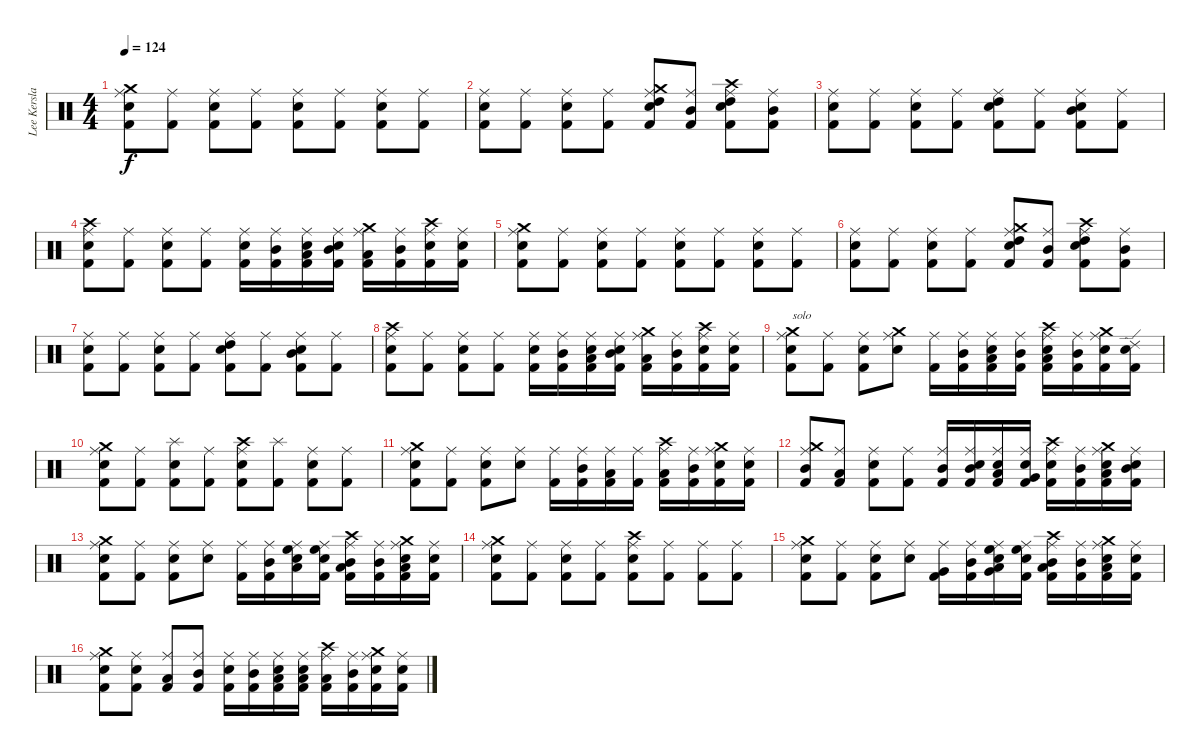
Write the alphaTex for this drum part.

\track ("Lee Kerslake" "Lee Kersla") {instrument percussion}
\staff {score}
\articulation defaults
\ts (4 4)
\tempo 124
\clef neutral
\ks c
("Kick (hit) 2" "Electric Snare (hit)" "Crash medium (hit)" "Ride (middle)").8{dy f} ("Kick (hit) 2" "Ride (middle)").8 ("Kick (hit) 2" "Electric Snare (hit)" "Ride (middle)").8 ("Kick (hit) 2" "Ride (middle)").8 ("Kick (hit) 2" "Electric Snare (hit)" "Ride (middle)").8 ("Kick (hit) 2" "Ride (middle)").8 ("Kick (hit) 2" "Electric Snare (hit)" "Ride (middle)").8 ("Kick (hit) 2" "Ride (middle)").8 |
("Kick (hit) 2" "Electric Snare (hit)" "Ride (middle)").8 ("Kick (hit) 2" "Ride (middle)").8 ("Kick (hit) 2" "Electric Snare (hit)" "Ride (middle)").8 ("Kick (hit) 2" "Ride (middle)").8 ("Kick (hit) 2" "Electric Snare (hit)" "High Tom (hit)" "Crash medium (hit)" "Ride (middle)").8 ("Kick (hit) 2" "Mid Tom (hit)" "Ride (middle)").8 ("Kick (hit) 2" "Electric Snare (hit)" "High Tom (hit)" "Crash high (hit)" "Ride (middle)").8 ("Kick (hit) 2" "Mid Tom (hit)" "Ride (middle)").8 |
("Kick (hit) 2" "Electric Snare (hit)" "Ride (middle)").8 ("Kick (hit) 2" "Ride (middle)").8 ("Kick (hit) 2" "Electric Snare (hit)" "Ride (middle)").8 ("Kick (hit) 2" "Ride (middle)").8 ("Kick (hit) 2" "Electric Snare (hit)" "High Tom (hit)" "Ride (middle)").8 ("Kick (hit) 2" "Ride (middle)").8 ("Kick (hit) 2" "Electric Snare (hit)" "Mid Tom (hit)" "Ride (middle)").8 ("Kick (hit) 2" "Ride (middle)").8 |
("Kick (hit) 2" "Electric Snare (hit)" "Crash high (hit)" "Ride (middle)").8 ("Kick (hit) 2" "Ride (middle)").8 ("Kick (hit) 2" "Electric Snare (hit)" "Ride (middle)").8 ("Kick (hit) 2" "Ride (middle)").8 ("Kick (hit) 2" "Electric Snare (hit)" "Ride (middle)").16 ("Kick (hit) 2" "Mid Tom (hit)" "Ride (middle)").16 ("Low Tom (hit)" "Kick (hit) 2" "Electric Snare (hit)" "Ride (middle)").16 ("Kick (hit) 2" "Mid Tom (hit)" "Electric Snare (hit)" "Ride (middle)").16 ("Kick (hit) 2" "Low Tom (hit)" "Crash medium (hit)" "Ride (middle)").16 ("Kick (hit) 2" "Mid Tom (hit)" "Ride (middle)").16 ("Kick (hit) 2" "Electric Snare (hit)" "Crash high (hit)" "Ride (middle)").16 ("Kick (hit) 2" "Electric Snare (hit)" "Ride (middle)").16 |
("Kick (hit) 2" "Electric Snare (hit)" "Crash medium (hit)" "Ride (middle)").8 ("Kick (hit) 2" "Ride (middle)").8 ("Kick (hit) 2" "Electric Snare (hit)" "Ride (middle)").8 ("Kick (hit) 2" "Ride (middle)").8 ("Kick (hit) 2" "Electric Snare (hit)" "Ride (middle)").8 ("Kick (hit) 2" "Ride (middle)").8 ("Kick (hit) 2" "Electric Snare (hit)" "Ride (middle)").8 ("Kick (hit) 2" "Ride (middle)").8 |
("Kick (hit) 2" "Electric Snare (hit)" "Ride (middle)").8 ("Kick (hit) 2" "Ride (middle)").8 ("Kick (hit) 2" "Electric Snare (hit)" "Ride (middle)").8 ("Kick (hit) 2" "Ride (middle)").8 ("Kick (hit) 2" "Electric Snare (hit)" "High Tom (hit)" "Crash medium (hit)" "Ride (middle)").8 ("Kick (hit) 2" "Mid Tom (hit)" "Ride (middle)").8 ("Kick (hit) 2" "Electric Snare (hit)" "High Tom (hit)" "Crash high (hit)" "Ride (middle)").8 ("Kick (hit) 2" "Mid Tom (hit)" "Ride (middle)").8 |
("Kick (hit) 2" "Electric Snare (hit)" "Ride (middle)").8 ("Kick (hit) 2" "Ride (middle)").8 ("Kick (hit) 2" "Electric Snare (hit)" "Ride (middle)").8 ("Kick (hit) 2" "Ride (middle)").8 ("Kick (hit) 2" "Electric Snare (hit)" "High Tom (hit)" "Ride (middle)").8 ("Kick (hit) 2" "Ride (middle)").8 ("Kick (hit) 2" "Electric Snare (hit)" "Mid Tom (hit)" "Ride (middle)").8 ("Kick (hit) 2" "Ride (middle)").8 |
("Kick (hit) 2" "Electric Snare (hit)" "Crash high (hit)" "Ride (middle)").8 ("Kick (hit) 2" "Ride (middle)").8 ("Kick (hit) 2" "Electric Snare (hit)" "Ride (middle)").8 ("Kick (hit) 2" "Ride (middle)").8 ("Kick (hit) 2" "Electric Snare (hit)" "Ride (middle)").16 ("Kick (hit) 2" "Mid Tom (hit)" "Ride (middle)").16 ("Low Tom (hit)" "Kick (hit) 2" "Electric Snare (hit)" "Ride (middle)").16 ("Kick (hit) 2" "Mid Tom (hit)" "Electric Snare (hit)" "Ride (middle)").16 ("Kick (hit) 2" "Low Tom (hit)" "Crash medium (hit)" "Ride (middle)").16 ("Kick (hit) 2" "Mid Tom (hit)" "Ride (middle)").16 ("Kick (hit) 2" "Electric Snare (hit)" "Crash high (hit)" "Ride (middle)").16 ("Kick (hit) 2" "Electric Snare (hit)" "Ride (middle)").16 |
("Kick (hit) 2" "Electric Snare (hit)" "Crash medium (hit)" "Ride (middle)").8{txt "solo"} ("Kick (hit) 2" "Ride (middle)").8 ("Kick (hit) 2" "Electric Snare (hit)" "Ride (middle)").8 ("Electric Snare (hit)" "Crash medium (hit)" "Ride (middle)").8 ("Kick (hit) 2" "Ride (middle)").16 ("Kick (hit) 2" "Mid Tom (hit)" "Ride (middle)").16 ("Low Tom (hit)" "Kick (hit) 2" "Electric Snare (hit)" "Ride (middle)").16 ("Kick (hit) 2" "Mid Tom (hit)" "Ride (middle)").16 ("Kick (hit) 2" "Low Tom (hit)" "Electric Snare (hit)" "Crash high (hit)" "Ride (middle)").16 ("Kick (hit) 2" "Mid Tom (hit)" "Ride (middle)").16 ("Kick (hit) 2" "Electric Snare (hit)" "Crash medium (hit)" "Ride (middle)").16 ("Kick (hit) 2" "Electric Snare (hit)" "Ride (edge) 2").16 |
("Kick (hit) 2" "Electric Snare (hit)" "Crash medium (hit)" "Ride (middle)").8 ("Kick (hit) 2" "Ride (middle)").8 ("Kick (hit) 2" "Electric Snare (hit)" "Splash (hit)").8 ("Kick (hit) 2" "Ride (middle)").8 ("Kick (hit) 2" "Electric Snare (hit)" "Crash high (hit)" "Ride (middle)").8 ("Kick (hit) 2" "Splash (hit)").8 ("Kick (hit) 2" "Electric Snare (hit)" "Ride (middle)").8 ("Kick (hit) 2" "Ride (middle)").8 |
("Kick (hit) 2" "Electric Snare (hit)" "Crash medium (hit)" "Ride (middle)").8 ("Kick (hit) 2" "Ride (middle)").8 ("Kick (hit) 2" "Electric Snare (hit)" "Ride (middle)").8 ("Electric Snare (hit)" "Ride (middle)").8 ("Kick (hit) 2" "Ride (middle)").16 ("Kick (hit) 2" "Mid Tom (hit)" "Ride (middle)").16 ("Low Tom (hit)" "Kick (hit) 2" "Ride (middle)").16 ("Kick (hit) 2" "Ride (middle)").16 ("Kick (hit) 2" "Low Tom (hit)" "Crash high (hit)" "Ride (middle)").16 ("Kick (hit) 2" "Mid Tom (hit)" "Ride (middle)").16 ("Kick (hit) 2" "Electric Snare (hit)" "Crash medium (hit)" "Ride (middle)").16 ("Kick (hit) 2" "Electric Snare (hit)" "Ride (middle)").16 |
("Kick (hit) 2" "Mid Tom (hit)" "Crash medium (hit)" "Ride (middle)").8 ("Kick (hit) 2" "Low Tom (hit)" "Ride (middle)").8 ("Kick (hit) 2" "Electric Snare (hit)" "Ride (middle)").8 ("Kick (hit) 2" "Ride (middle)").8 ("Kick (hit) 2" "Mid Tom (hit)" "Ride (middle)").16 ("Kick (hit) 2" "Electric Snare (hit)" "Mid Tom (hit)" "Ride (middle)").16 ("Kick (hit) 2" "Low Tom (hit)" "Electric Snare (hit)" "Ride (middle)").16 ("Kick (hit) 2" "Very Low Tom (hit)" "Electric Snare (hit)" "Ride (middle)").16 ("Kick (hit) 2" "Electric Snare (hit)" "Crash high (hit)" "Ride (middle)").16 ("Kick (hit) 2" "Mid Tom (hit)" "Ride (middle)").16 ("Kick (hit) 2" "Low Tom (hit)" "Electric Snare (hit)" "Crash medium (hit)" "Ride (middle)").16 ("Kick (hit) 2" "Mid Tom (hit)" "Electric Snare (hit)" "Ride (middle)").16 |
("Kick (hit) 2" "Electric Snare (hit)" "Crash medium (hit)" "Ride (middle)").8 ("Kick (hit) 2" "Ride (middle)").8 ("Kick (hit) 2" "Electric Snare (hit)" "Ride (middle)").8 ("Electric Snare (hit)" "Ride (middle)").8 ("Kick (hit) 2" "Ride (middle)").16 ("Kick (hit) 2" "Mid Tom (hit)" "Ride (middle)").16 ("Low Tom (hit)" "High Floor Tom (hit)" "Electric Snare (hit)" "Ride (middle)").16 ("Kick (hit) 2" "High Floor Tom (hit)" "Electric Snare (hit)" "Ride (middle)").16 ("Kick (hit) 2" "Low Tom (hit)" "Mid Tom (hit)" "Crash high (hit)" "Ride (middle)").16 ("Kick (hit) 2" "Mid Tom (hit)" "Ride (middle)").16 ("Kick (hit) 2" "Low Tom (hit)" "Electric Snare (hit)" "Crash medium (hit)" "Ride (middle)").16 ("Kick (hit) 2" "Electric Snare (hit)" "Ride (middle)").16 |
("Kick (hit) 2" "Electric Snare (hit)" "Crash medium (hit)" "Ride (middle)").8 ("Kick (hit) 2" "Ride (middle)").8 ("Kick (hit) 2" "Electric Snare (hit)" "Ride (middle)").8 ("Kick (hit) 2" "Ride (middle)").8 ("Kick (hit) 2" "Electric Snare (hit)" "Crash high (hit)" "Ride (middle)").8 ("Kick (hit) 2" "Ride (middle)").8 ("Kick (hit) 2" "Ride (middle)").8 ("Kick (hit) 2" "Ride (middle)").8 |
("Kick (hit) 2" "Electric Snare (hit)" "Crash medium (hit)" "Ride (middle)").8 ("Kick (hit) 2" "Ride (middle)").8 ("Kick (hit) 2" "Electric Snare (hit)" "Ride (middle)").8 ("Electric Snare (hit)" "Ride (middle)").8 ("Very Low Tom (hit)" "Kick (hit) 2" "Ride (middle)").16 ("Kick (hit) 2" "Mid Tom (hit)" "Ride (middle)").16 ("Low Tom (hit)" "High Floor Tom (hit)" "Very Low Tom (hit)" "Electric Snare (hit)" "Ride (middle)").16 ("Kick (hit) 2" "High Floor Tom (hit)" "Electric Snare (hit)" "Ride (middle)").16 ("Kick (hit) 2" "Low Tom (hit)" "Mid Tom (hit)" "Crash high (hit)" "Ride (middle)").16 ("Kick (hit) 2" "Mid Tom (hit)" "Ride (middle)").16 ("Kick (hit) 2" "Low Tom (hit)" "Electric Snare (hit)" "Crash medium (hit)" "Ride (middle)").16 ("Kick (hit) 2" "Electric Snare (hit)" "Ride (middle)").16 |
("Kick (hit) 2" "Electric Snare (hit)" "Crash medium (hit)" "Ride (middle)").8 ("Kick (hit) 2" "Electric Snare (hit)" "Ride (middle)").8 ("Kick (hit) 2" "Low Tom (hit)" "Ride (middle)").8 ("Kick (hit) 2" "Mid Tom (hit)" "Ride (middle)").8 ("Kick (hit) 2" "Electric Snare (hit)" "Ride (middle)").16 ("Kick (hit) 2" "Mid Tom (hit)" "Ride (middle)").16 ("Kick (hit) 2" "Low Tom (hit)" "Electric Snare (hit)" "Ride (middle)").16 ("Kick (hit) 2" "Low Floor Tom (hit)" "Electric Snare (hit)" "Ride (middle)").16 ("Kick (hit) 2" "Low Tom (hit)" "Crash high (hit)" "Ride (middle)").16 ("Kick (hit) 2" "Mid Tom (hit)" "Ride (middle)").16 ("Kick (hit) 2" "Electric Snare (hit)" "Crash medium (hit)" "Ride (middle)").16 ("Kick (hit) 2" "Electric Snare (hit)" "Ride (middle)").16
